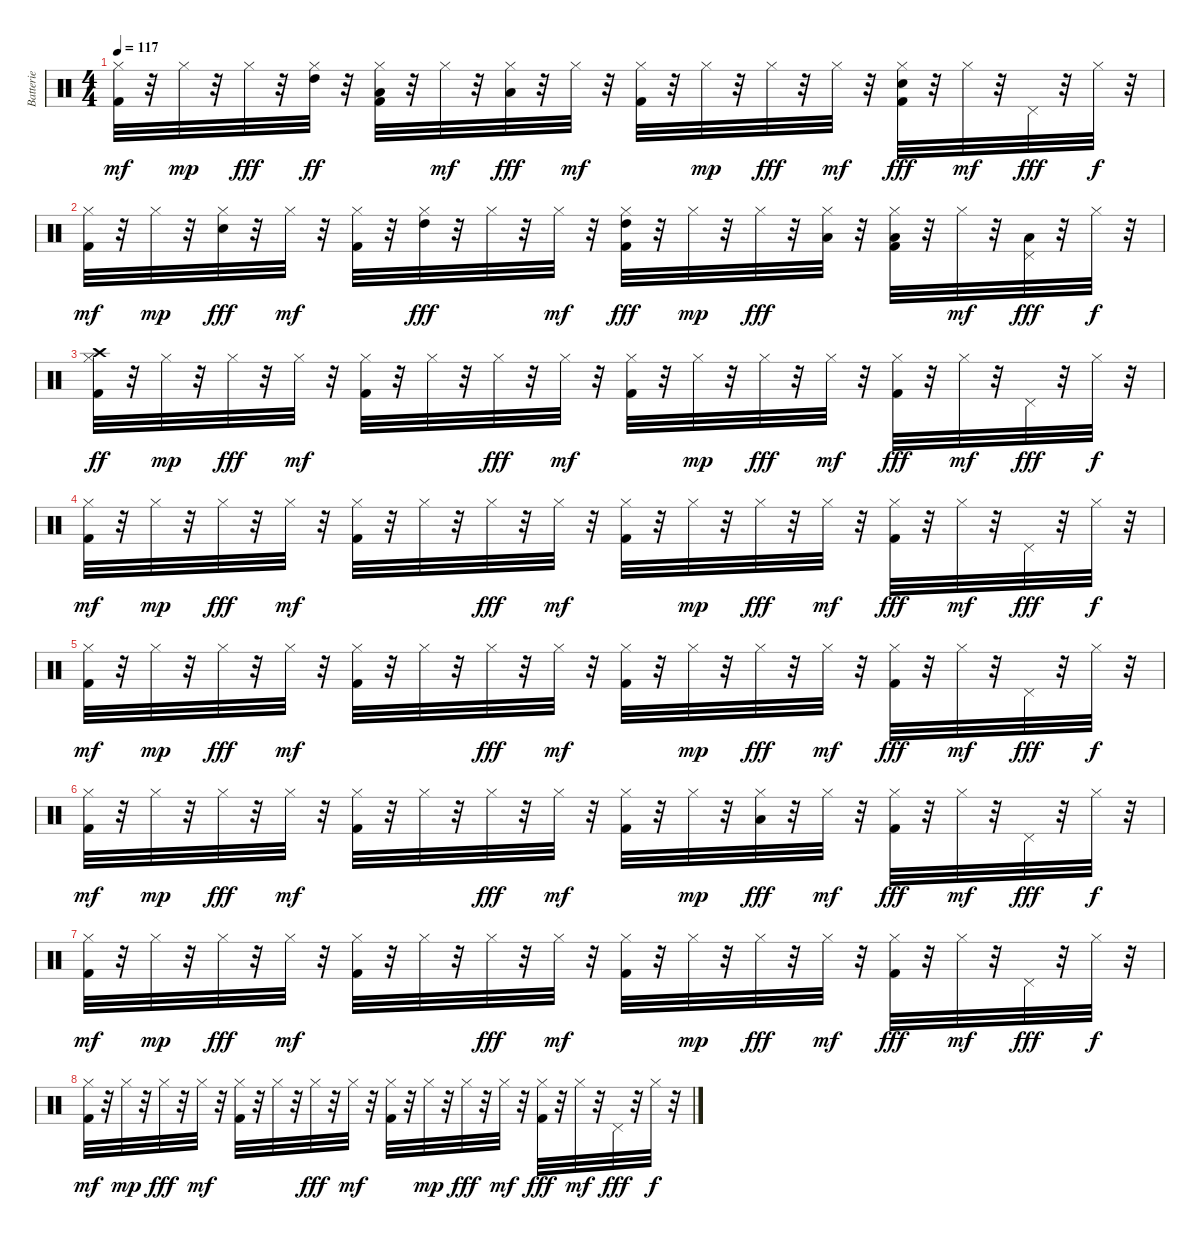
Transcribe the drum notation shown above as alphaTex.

\track ("Batterie" "Batterie") {instrument percussion}
\staff {score}
\articulation defaults
\ts (4 4)
\tempo 117
\clef neutral
\ks c
("Kick (hit) 2" "Hi-Hat (closed)").32{dy mf} r.32 "Hi-Hat (closed)".32{dy mp} r.32 "Hi-Hat (closed)".32{dy fff} r.32 ("Hi-Hat (closed)" "High Tom (hit)").32{dy ff} r.32 ("Kick (hit) 2" "Hi-Hat (closed)" "Low Tom (hit)").32 r.32 "Hi-Hat (closed)".32{dy mf} r.32 ("Hi-Hat (closed)" "Low Floor Tom (hit)").32{dy fff} r.32 "Hi-Hat (closed)".32{dy mf} r.32 ("Kick (hit) 2" "Hi-Hat (closed)").32 r.32 "Hi-Hat (closed)".32{dy mp} r.32 "Hi-Hat (closed)".32{dy fff} r.32 "Hi-Hat (closed)".32{dy mf} r.32 ("Kick (hit) 2" "Electric Snare (hit)" "Hi-Hat (closed)").32{dy fff} r.32 "Hi-Hat (closed)".32{dy mf} r.32 "Pedal Hi-Hat (hit)".32{dy fff} r.32 "Hi-Hat (closed)".32{dy f} r.32 |
("Kick (hit) 2" "Hi-Hat (closed)").32{dy mf} r.32 "Hi-Hat (closed)".32{dy mp} r.32 ("Electric Snare (hit)" "Hi-Hat (closed)").32{dy fff} r.32 "Hi-Hat (closed)".32{dy mf} r.32 ("Kick (hit) 2" "Hi-Hat (closed)").32 r.32 ("Hi-Hat (closed)" "High Tom (hit)").32{dy fff} r.32 "Hi-Hat (closed)".32 r.32 "Hi-Hat (closed)".32{dy mf} r.32 ("Kick (hit) 2" "Hi-Hat (closed)" "High Tom (hit)").32{dy fff} r.32 "Hi-Hat (closed)".32{dy mp} r.32 "Hi-Hat (closed)".32{dy fff} r.32 ("Hi-Hat (closed)" "Low Tom (hit)").32 r.32 ("Kick (hit) 2" "Hi-Hat (closed)" "Low Tom (hit)").32 r.32 "Hi-Hat (closed)".32{dy mf} r.32 ("Pedal Hi-Hat (hit)" "Low Floor Tom (hit)").32{dy fff} r.32 "Hi-Hat (closed)".32{dy f} r.32 |
("Kick (hit) 2" "Hi-Hat (closed)" "Crash high (hit)").32{dy ff} r.32 "Hi-Hat (closed)".32{dy mp} r.32 "Hi-Hat (closed)".32{dy fff} r.32 "Hi-Hat (closed)".32{dy mf} r.32 ("Kick (hit) 2" "Hi-Hat (closed)").32 r.32 "Hi-Hat (closed)".32 r.32 "Hi-Hat (closed)".32{dy fff} r.32 "Hi-Hat (closed)".32{dy mf} r.32 ("Kick (hit) 2" "Hi-Hat (closed)").32 r.32 "Hi-Hat (closed)".32{dy mp} r.32 "Hi-Hat (closed)".32{dy fff} r.32 "Hi-Hat (closed)".32{dy mf} r.32 ("Kick (hit) 2" "Hi-Hat (closed)").32{dy fff} r.32 "Hi-Hat (closed)".32{dy mf} r.32 "Pedal Hi-Hat (hit)".32{dy fff} r.32 "Hi-Hat (closed)".32{dy f} r.32 |
("Kick (hit) 2" "Hi-Hat (closed)").32{dy mf} r.32 "Hi-Hat (closed)".32{dy mp} r.32 "Hi-Hat (closed)".32{dy fff} r.32 "Hi-Hat (closed)".32{dy mf} r.32 ("Kick (hit) 2" "Hi-Hat (closed)").32 r.32 "Hi-Hat (closed)".32 r.32 "Hi-Hat (closed)".32{dy fff} r.32 "Hi-Hat (closed)".32{dy mf} r.32 ("Kick (hit) 2" "Hi-Hat (closed)").32 r.32 "Hi-Hat (closed)".32{dy mp} r.32 "Hi-Hat (closed)".32{dy fff} r.32 "Hi-Hat (closed)".32{dy mf} r.32 ("Kick (hit) 2" "Hi-Hat (closed)").32{dy fff} r.32 "Hi-Hat (closed)".32{dy mf} r.32 "Pedal Hi-Hat (hit)".32{dy fff} r.32 "Hi-Hat (closed)".32{dy f} r.32 |
("Kick (hit) 2" "Hi-Hat (closed)").32{dy mf} r.32 "Hi-Hat (closed)".32{dy mp} r.32 "Hi-Hat (closed)".32{dy fff} r.32 "Hi-Hat (closed)".32{dy mf} r.32 ("Kick (hit) 2" "Hi-Hat (closed)").32 r.32 "Hi-Hat (closed)".32 r.32 "Hi-Hat (closed)".32{dy fff} r.32 "Hi-Hat (closed)".32{dy mf} r.32 ("Kick (hit) 2" "Hi-Hat (closed)").32 r.32 "Hi-Hat (closed)".32{dy mp} r.32 "Hi-Hat (closed)".32{dy fff} r.32 "Hi-Hat (closed)".32{dy mf} r.32 ("Kick (hit) 2" "Hi-Hat (closed)").32{dy fff} r.32 "Hi-Hat (closed)".32{dy mf} r.32 "Pedal Hi-Hat (hit)".32{dy fff} r.32 "Hi-Hat (closed)".32{dy f} r.32 |
("Kick (hit) 2" "Hi-Hat (closed)").32{dy mf} r.32 "Hi-Hat (closed)".32{dy mp} r.32 "Hi-Hat (closed)".32{dy fff} r.32 "Hi-Hat (closed)".32{dy mf} r.32 ("Kick (hit) 2" "Hi-Hat (closed)").32 r.32 "Hi-Hat (closed)".32 r.32 "Hi-Hat (closed)".32{dy fff} r.32 "Hi-Hat (closed)".32{dy mf} r.32 ("Kick (hit) 2" "Hi-Hat (closed)").32 r.32 "Hi-Hat (closed)".32{dy mp} r.32 ("Hi-Hat (closed)" "Low Tom (hit)").32{dy fff} r.32 "Hi-Hat (closed)".32{dy mf} r.32 ("Kick (hit) 2" "Hi-Hat (closed)").32{dy fff} r.32 "Hi-Hat (closed)".32{dy mf} r.32 "Pedal Hi-Hat (hit)".32{dy fff} r.32 "Hi-Hat (closed)".32{dy f} r.32 |
("Kick (hit) 2" "Hi-Hat (closed)").32{dy mf} r.32 "Hi-Hat (closed)".32{dy mp} r.32 "Hi-Hat (closed)".32{dy fff} r.32 "Hi-Hat (closed)".32{dy mf} r.32 ("Kick (hit) 2" "Hi-Hat (closed)").32 r.32 "Hi-Hat (closed)".32 r.32 "Hi-Hat (closed)".32{dy fff} r.32 "Hi-Hat (closed)".32{dy mf} r.32 ("Kick (hit) 2" "Hi-Hat (closed)").32 r.32 "Hi-Hat (closed)".32{dy mp} r.32 "Hi-Hat (closed)".32{dy fff} r.32 "Hi-Hat (closed)".32{dy mf} r.32 ("Kick (hit) 2" "Hi-Hat (closed)").32{dy fff} r.32 "Hi-Hat (closed)".32{dy mf} r.32 "Pedal Hi-Hat (hit)".32{dy fff} r.32 "Hi-Hat (closed)".32{dy f} r.32 |
("Kick (hit) 2" "Hi-Hat (closed)").32{dy mf} r.32 "Hi-Hat (closed)".32{dy mp} r.32 "Hi-Hat (closed)".32{dy fff} r.32 "Hi-Hat (closed)".32{dy mf} r.32 ("Kick (hit) 2" "Hi-Hat (closed)").32 r.32 "Hi-Hat (closed)".32 r.32 "Hi-Hat (closed)".32{dy fff} r.32 "Hi-Hat (closed)".32{dy mf} r.32 ("Kick (hit) 2" "Hi-Hat (closed)").32 r.32 "Hi-Hat (closed)".32{dy mp} r.32 "Hi-Hat (closed)".32{dy fff} r.32 "Hi-Hat (closed)".32{dy mf} r.32 ("Kick (hit) 2" "Hi-Hat (closed)").32{dy fff} r.32 "Hi-Hat (closed)".32{dy mf} r.32 "Pedal Hi-Hat (hit)".32{dy fff} r.32 "Hi-Hat (closed)".32{dy f} r.32
